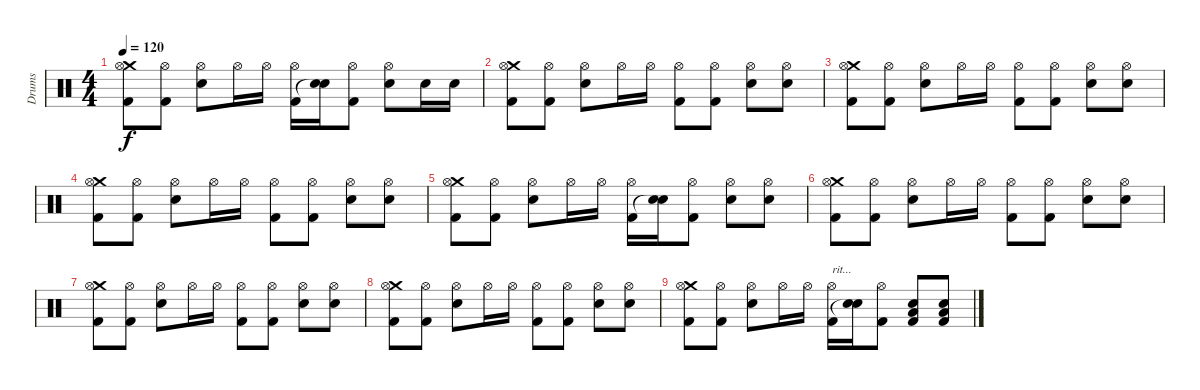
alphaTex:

\track ("Drums" "Drums") {instrument percussion}
\staff {score}
\articulation defaults
\ts (4 4)
\tempo 120
\clef neutral
\ks c
("Crash medium (hit)" "Hi-Hat (open)" "Kick (hit) 2").8{dy f} ("Hi-Hat (open)" "Kick (hit) 2").8 ("Hi-Hat (open)" "Electric Snare (hit)").8 "Hi-Hat (open)".16 "Hi-Hat (open)".16 ("Hi-Hat (open)" "Kick (hit) 2").16 ("Electric Snare (hit)" "Snare (hit)"{t}).16 ("Hi-Hat (open)" "Kick (hit) 2").8 ("Hi-Hat (open)" "Electric Snare (hit)").8 "Electric Snare (hit)".16 "Electric Snare (hit)".16 |
("Crash medium (hit)" "Hi-Hat (open)" "Kick (hit) 2").8 ("Hi-Hat (open)" "Kick (hit) 2").8 ("Hi-Hat (open)" "Electric Snare (hit)").8 "Hi-Hat (open)".16 "Hi-Hat (open)".16 ("Hi-Hat (open)" "Kick (hit) 2").8 ("Hi-Hat (open)" "Kick (hit) 2").8 ("Hi-Hat (open)" "Electric Snare (hit)").8 ("Hi-Hat (open)" "Electric Snare (hit)").8 |
("Crash medium (hit)" "Hi-Hat (open)" "Kick (hit) 2").8 ("Hi-Hat (open)" "Kick (hit) 2").8 ("Hi-Hat (open)" "Electric Snare (hit)").8 "Hi-Hat (open)".16 "Hi-Hat (open)".16 ("Hi-Hat (open)" "Kick (hit) 2").8 ("Hi-Hat (open)" "Kick (hit) 2").8 ("Hi-Hat (open)" "Electric Snare (hit)").8 ("Hi-Hat (open)" "Electric Snare (hit)").8 |
("Crash medium (hit)" "Hi-Hat (open)" "Kick (hit) 2").8 ("Hi-Hat (open)" "Kick (hit) 2").8 ("Hi-Hat (open)" "Electric Snare (hit)").8 "Hi-Hat (open)".16 "Hi-Hat (open)".16 ("Hi-Hat (open)" "Kick (hit) 2").8 ("Hi-Hat (open)" "Kick (hit) 2").8 ("Hi-Hat (open)" "Electric Snare (hit)").8 ("Hi-Hat (open)" "Electric Snare (hit)").8 |
("Crash medium (hit)" "Hi-Hat (open)" "Kick (hit) 2").8 ("Hi-Hat (open)" "Kick (hit) 2").8 ("Hi-Hat (open)" "Electric Snare (hit)").8 "Hi-Hat (open)".16 "Hi-Hat (open)".16 ("Hi-Hat (open)" "Kick (hit) 2").16 ("Electric Snare (hit)" "Snare (hit)"{t}).16 ("Hi-Hat (open)" "Kick (hit) 2").8 ("Hi-Hat (open)" "Electric Snare (hit)").8 ("Hi-Hat (open)" "Electric Snare (hit)").8 |
("Crash medium (hit)" "Hi-Hat (open)" "Kick (hit) 2").8 ("Hi-Hat (open)" "Kick (hit) 2").8 ("Hi-Hat (open)" "Electric Snare (hit)").8 "Hi-Hat (open)".16 "Hi-Hat (open)".16 ("Hi-Hat (open)" "Kick (hit) 2").8 ("Hi-Hat (open)" "Kick (hit) 2").8 ("Hi-Hat (open)" "Electric Snare (hit)").8 ("Hi-Hat (open)" "Electric Snare (hit)").8 |
("Crash medium (hit)" "Hi-Hat (open)" "Kick (hit) 2").8 ("Hi-Hat (open)" "Kick (hit) 2").8 ("Hi-Hat (open)" "Electric Snare (hit)").8 "Hi-Hat (open)".16 "Hi-Hat (open)".16 ("Hi-Hat (open)" "Kick (hit) 2").8 ("Hi-Hat (open)" "Kick (hit) 2").8 ("Hi-Hat (open)" "Electric Snare (hit)").8 ("Hi-Hat (open)" "Electric Snare (hit)").8 |
("Crash medium (hit)" "Hi-Hat (open)" "Kick (hit) 2").8 ("Hi-Hat (open)" "Kick (hit) 2").8 ("Hi-Hat (open)" "Electric Snare (hit)").8 "Hi-Hat (open)".16 "Hi-Hat (open)".16 ("Hi-Hat (open)" "Kick (hit) 2").8 ("Hi-Hat (open)" "Kick (hit) 2").8 ("Hi-Hat (open)" "Electric Snare (hit)").8 ("Hi-Hat (open)" "Electric Snare (hit)").8 |
("Crash medium (hit)" "Hi-Hat (open)" "Kick (hit) 2").8 ("Hi-Hat (open)" "Kick (hit) 2").8 ("Hi-Hat (open)" "Electric Snare (hit)").8 "Hi-Hat (open)".16 "Hi-Hat (open)".16 ("Hi-Hat (open)" "Kick (hit) 2").16{txt "rit..."} ("Electric Snare (hit)" "Snare (hit)"{t}).16 ("Hi-Hat (open)" "Kick (hit) 2").8 ("Electric Snare (hit)" "Low Floor Tom (hit)" "Kick (hit) 2").8 ("Electric Snare (hit)" "Low Floor Tom (hit)" "Kick (hit) 2").8
